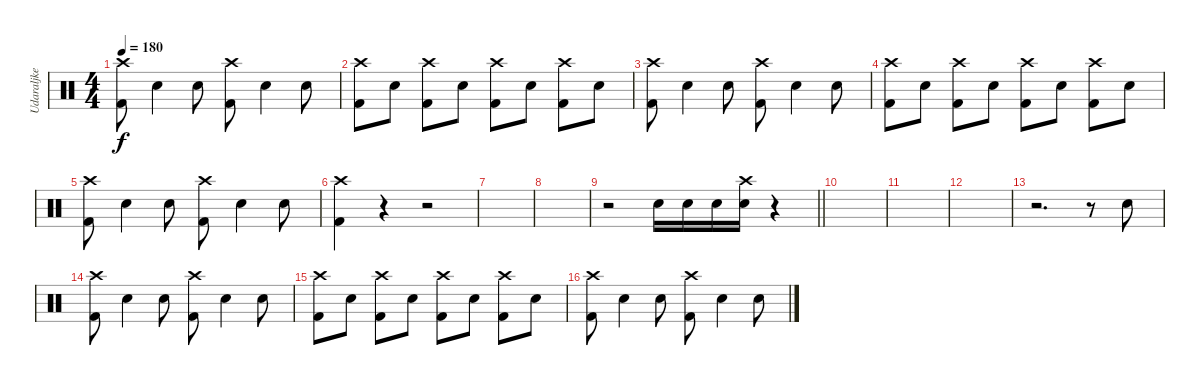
\track ("Udaraljke" "Udaraljke") {instrument percussion}
\staff {score}
\articulation defaults
\ts (4 4)
\tempo 180
\clef neutral
\ks c
("Crash high (hit)" "Kick (hit) 2").8{dy f} "Electric Snare (hit)".4 "Electric Snare (hit)".8 ("Crash high (hit)" "Kick (hit) 2").8 "Electric Snare (hit)".4 "Electric Snare (hit)".8 |
("Crash high (hit)" "Kick (hit) 2").8 "Electric Snare (hit)".8 ("Crash high (hit)" "Kick (hit) 2").8 "Electric Snare (hit)".8 ("Crash high (hit)" "Kick (hit) 2").8 "Electric Snare (hit)".8 ("Crash high (hit)" "Kick (hit) 2").8 "Electric Snare (hit)".8 |
("Crash high (hit)" "Kick (hit) 2").8 "Electric Snare (hit)".4 "Electric Snare (hit)".8 ("Crash high (hit)" "Kick (hit) 2").8 "Electric Snare (hit)".4 "Electric Snare (hit)".8 |
("Crash high (hit)" "Kick (hit) 2").8 "Electric Snare (hit)".8 ("Crash high (hit)" "Kick (hit) 2").8 "Electric Snare (hit)".8 ("Crash high (hit)" "Kick (hit) 2").8 "Electric Snare (hit)".8 ("Crash high (hit)" "Kick (hit) 2").8 "Electric Snare (hit)".8 |
("Crash high (hit)" "Kick (hit) 2").8 "Electric Snare (hit)".4 "Electric Snare (hit)".8 ("Crash high (hit)" "Kick (hit) 2").8 "Electric Snare (hit)".4 "Electric Snare (hit)".8 |
("Crash high (hit)" "Kick (hit) 2").4 r.4 r.2 |
|
|
\barLineRight lightlight
r.2 "Electric Snare (hit)".16 "Electric Snare (hit)".16 "Electric Snare (hit)".16 ("Crash high (hit)" "Electric Snare (hit)").16 r.4 |
|
|
|
r.2{d} r.8 "Electric Snare (hit)".8 |
("Crash high (hit)" "Kick (hit) 2").8 "Electric Snare (hit)".4 "Electric Snare (hit)".8 ("Crash high (hit)" "Kick (hit) 2").8 "Electric Snare (hit)".4 "Electric Snare (hit)".8 |
("Crash high (hit)" "Kick (hit) 2").8 "Electric Snare (hit)".8 ("Crash high (hit)" "Kick (hit) 2").8 "Electric Snare (hit)".8 ("Crash high (hit)" "Kick (hit) 2").8 "Electric Snare (hit)".8 ("Crash high (hit)" "Kick (hit) 2").8 "Electric Snare (hit)".8 |
("Crash high (hit)" "Kick (hit) 2").8 "Electric Snare (hit)".4 "Electric Snare (hit)".8 ("Crash high (hit)" "Kick (hit) 2").8 "Electric Snare (hit)".4 "Electric Snare (hit)".8
